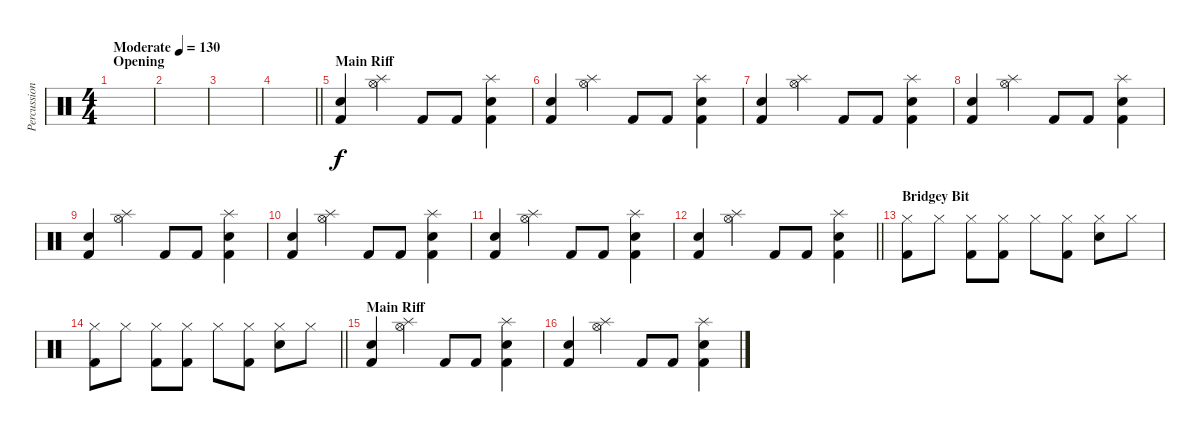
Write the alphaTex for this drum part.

\track ("Percussion" "Percussion") {instrument percussion}
\staff {score}
\articulation defaults
\ts (4 4)
\section ("" "Opening")
\tempo (130 "Moderate")
\clef neutral
\ks c
|
|
|
\barLineRight lightlight
|
\section ("" "Main Riff")
("Kick (hit) 2" "Electric Snare (hit)").4 ("Hi-Hat (open)" "Splash (hit)").4 "Kick (hit) 2".8 "Kick (hit) 2".8 ("Kick (hit) 2" "Splash (hit)" "Electric Snare (hit)").4 |
("Kick (hit) 2" "Electric Snare (hit)").4 ("Hi-Hat (open)" "Splash (hit)").4 "Kick (hit) 2".8 "Kick (hit) 2".8 ("Kick (hit) 2" "Splash (hit)" "Electric Snare (hit)").4 |
("Kick (hit) 2" "Electric Snare (hit)").4 ("Hi-Hat (open)" "Splash (hit)").4 "Kick (hit) 2".8 "Kick (hit) 2".8 ("Kick (hit) 2" "Splash (hit)" "Electric Snare (hit)").4 |
("Kick (hit) 2" "Electric Snare (hit)").4 ("Hi-Hat (open)" "Splash (hit)").4 "Kick (hit) 2".8 "Kick (hit) 2".8 ("Kick (hit) 2" "Splash (hit)" "Electric Snare (hit)").4 |
("Kick (hit) 2" "Electric Snare (hit)").4 ("Hi-Hat (open)" "Splash (hit)").4 "Kick (hit) 2".8 "Kick (hit) 2".8 ("Kick (hit) 2" "Splash (hit)" "Electric Snare (hit)").4 |
("Kick (hit) 2" "Electric Snare (hit)").4 ("Hi-Hat (open)" "Splash (hit)").4 "Kick (hit) 2".8 "Kick (hit) 2".8 ("Kick (hit) 2" "Splash (hit)" "Electric Snare (hit)").4 |
("Kick (hit) 2" "Electric Snare (hit)").4 ("Hi-Hat (open)" "Splash (hit)").4 "Kick (hit) 2".8 "Kick (hit) 2".8 ("Kick (hit) 2" "Splash (hit)" "Electric Snare (hit)").4 |
\barLineRight lightlight
("Kick (hit) 2" "Electric Snare (hit)").4 ("Hi-Hat (open)" "Splash (hit)").4 "Kick (hit) 2".8 "Kick (hit) 2".8 ("Kick (hit) 2" "Splash (hit)" "Electric Snare (hit)").4 |
\section ("" "Bridgey Bit")
("Kick (hit) 2" "Hi-Hat (closed)").8 "Hi-Hat (closed)".8 ("Kick (hit) 2" "Hi-Hat (closed)").8 ("Kick (hit) 2" "Hi-Hat (closed)").8 "Hi-Hat (closed)".8 ("Kick (hit) 2" "Hi-Hat (closed)").8 ("Snare (hit) 2" "Hi-Hat (closed)").8 "Hi-Hat (closed)".8 |
\barLineRight lightlight
("Kick (hit) 2" "Hi-Hat (closed)").8 "Hi-Hat (closed)".8 ("Kick (hit) 2" "Hi-Hat (closed)").8 ("Kick (hit) 2" "Hi-Hat (closed)").8 "Hi-Hat (closed)".8 ("Kick (hit) 2" "Hi-Hat (closed)").8 ("Snare (hit) 2" "Hi-Hat (closed)").8 "Hi-Hat (closed)".8 |
\section ("" "Main Riff")
("Kick (hit) 2" "Electric Snare (hit)").4 ("Hi-Hat (open)" "Splash (hit)").4 "Kick (hit) 2".8 "Kick (hit) 2".8 ("Kick (hit) 2" "Splash (hit)" "Electric Snare (hit)").4 |
("Kick (hit) 2" "Electric Snare (hit)").4 ("Hi-Hat (open)" "Splash (hit)").4 "Kick (hit) 2".8 "Kick (hit) 2".8 ("Kick (hit) 2" "Splash (hit)" "Electric Snare (hit)").4
